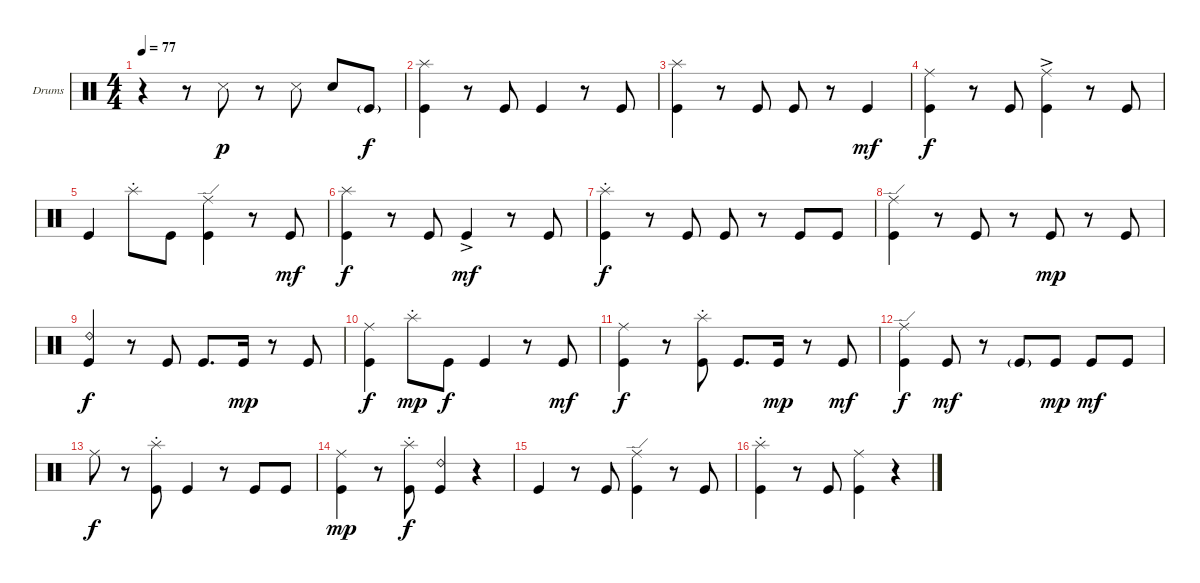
\bracketExtendMode groupsimilarinstruments
\firstSystemTrackNameOrientation horizontal
\otherSystemsTrackNameOrientation horizontal
\track ("Ударники Григорий Гурьянов" "Drums") {instrument percussion}
\staff {score}
\articulation defaults
\ts (4 4)
\tempo 77
\clef neutral
\ks c
r.4{dy p} r.8 "Snare (side stick) 3".8 r.8 "Snare (side stick) 3".8 "Snare (hit) 2".8 "Kick (hit)"{g}.8{dy f} |
("Kick (hit)" "Splash (hit)").4 r.8 "Kick (hit)".8 "Kick (hit)".4 r.8 "Kick (hit)".8 |
("Kick (hit)" "Splash (hit)").4 r.8 "Kick (hit)".8 "Kick (hit)".8 r.8 "Kick (hit)".4{dy mf} |
("Kick (hit)" "Ride (middle)").4{dy f} r.8 "Kick (hit)".8 ("Kick (hit)" "Ride (middle)"{ac}).4 r.8 "Kick (hit)".8 |
"Kick (hit)".4 "Splash (hit)"{st}.8 "Kick (hit)".8 ("Kick (hit)" "Ride (edge)").4 r.8 "Kick (hit)".8{dy mf} |
("Kick (hit)" "Splash (hit)").4{dy f} r.8 "Kick (hit)".8 "Kick (hit)"{ac}.4{dy mf} r.8 "Kick (hit)".8 |
("Kick (hit)" "Splash (hit)"{st}).4{dy f} r.8 "Kick (hit)".8 "Kick (hit)".8 r.8 "Kick (hit)".8 "Kick (hit)".8 |
("Kick (hit)" "Ride (edge)").4 r.8 "Kick (hit)".8 r.8 "Kick (hit)".8{dy mp} r.8 "Kick (hit)".8 |
("Kick (hit)" "Ride (bell) 2").4{dy f} r.8 "Kick (hit)".8 "Kick (hit)".8{d} "Kick (hit)".16{dy mp} r.8 "Kick (hit)".8 |
("Kick (hit)" "Ride (middle)").4{dy f} "Splash (hit)"{st}.8{dy mp} "Kick (hit)".8{dy f} "Kick (hit)".4 r.8 "Kick (hit)".8{dy mf} |
("Kick (hit)" "Ride (middle)").4{dy f} r.8 ("Kick (hit)" "Splash (hit)"{st}).8 "Kick (hit)".8{d} "Kick (hit)".16{dy mp} r.8 "Kick (hit)".8{dy mf} |
("Kick (hit)" "Ride (edge)").4{dy f} "Kick (hit)".8{dy mf} r.8 "Kick (hit)"{g}.8 "Kick (hit)".8{dy mp} "Kick (hit)".8{dy mf} "Kick (hit)".8 |
"Ride (middle)".8{dy f} r.8 ("Kick (hit)" "Splash (hit)"{st}).8 "Kick (hit)".4 r.8 "Kick (hit)".8 "Kick (hit)".8 |
("Kick (hit)" "Ride (middle)").4{dy mp} r.8 ("Kick (hit)" "Splash (hit)"{st}).8{dy f} ("Kick (hit)" "Ride (bell) 2").4 r.4 |
"Kick (hit)".4 r.8 "Kick (hit)".8 ("Kick (hit)" "Ride (edge)").4 r.8 "Kick (hit)".8 |
("Kick (hit)" "Splash (hit)"{st}).4 r.8 "Kick (hit)".8 ("Kick (hit)" "Ride (middle)").4 r.4
